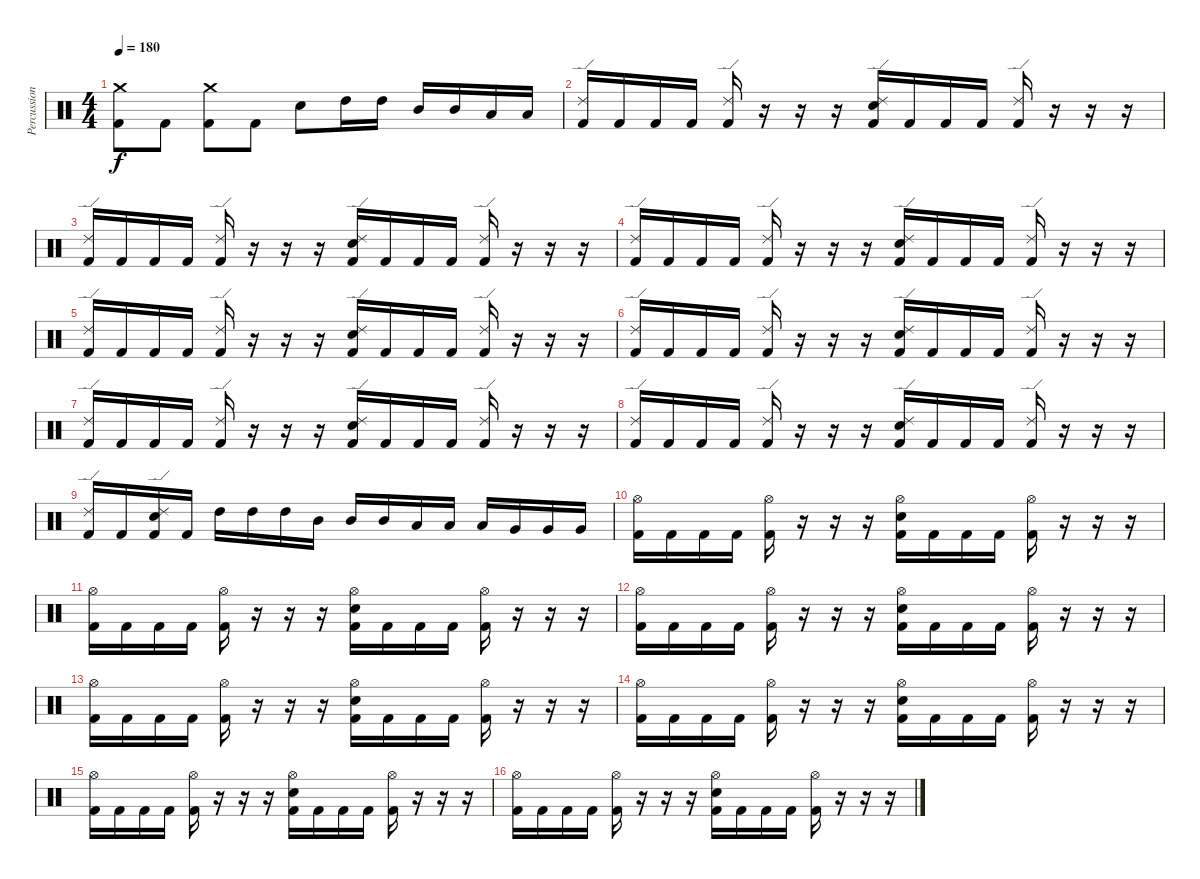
\track ("Percussion" "Percussion") {instrument percussion}
\staff {score}
\articulation defaults
\ts (4 4)
\tempo 180
\clef neutral
\ks c
("Kick (hit) 2" "Crash medium (hit)").8{dy f} "Kick (hit) 2".8 ("Kick (hit) 2" "Crash medium (hit)").8 "Kick (hit) 2".8 "Electric Snare (hit)".8 "High Tom (hit)".16 "High Tom (hit)".16 "Mid Tom (hit)".16 "Mid Tom (hit)".16 "Low Tom (hit)".16 "Low Tom (hit)".16 |
("Kick (hit) 2" "Ride (edge) 2").16 "Kick (hit) 2".16 "Kick (hit) 2".16 "Kick (hit) 2".16 ("Kick (hit) 2" "Ride (edge) 2").16 r.16 r.16 r.16 ("Kick (hit) 2" "Electric Snare (hit)" "Ride (edge) 2").16 "Kick (hit) 2".16 "Kick (hit) 2".16 "Kick (hit) 2".16 ("Kick (hit) 2" "Ride (edge) 2").16 r.16 r.16 r.16 |
("Kick (hit) 2" "Ride (edge) 2").16 "Kick (hit) 2".16 "Kick (hit) 2".16 "Kick (hit) 2".16 ("Kick (hit) 2" "Ride (edge) 2").16 r.16 r.16 r.16 ("Kick (hit) 2" "Electric Snare (hit)" "Ride (edge) 2").16 "Kick (hit) 2".16 "Kick (hit) 2".16 "Kick (hit) 2".16 ("Kick (hit) 2" "Ride (edge) 2").16 r.16 r.16 r.16 |
("Kick (hit) 2" "Ride (edge) 2").16 "Kick (hit) 2".16 "Kick (hit) 2".16 "Kick (hit) 2".16 ("Kick (hit) 2" "Ride (edge) 2").16 r.16 r.16 r.16 ("Kick (hit) 2" "Electric Snare (hit)" "Ride (edge) 2").16 "Kick (hit) 2".16 "Kick (hit) 2".16 "Kick (hit) 2".16 ("Kick (hit) 2" "Ride (edge) 2").16 r.16 r.16 r.16 |
("Kick (hit) 2" "Ride (edge) 2").16 "Kick (hit) 2".16 "Kick (hit) 2".16 "Kick (hit) 2".16 ("Kick (hit) 2" "Ride (edge) 2").16 r.16 r.16 r.16 ("Kick (hit) 2" "Electric Snare (hit)" "Ride (edge) 2").16 "Kick (hit) 2".16 "Kick (hit) 2".16 "Kick (hit) 2".16 ("Kick (hit) 2" "Ride (edge) 2").16 r.16 r.16 r.16 |
("Kick (hit) 2" "Ride (edge) 2").16 "Kick (hit) 2".16 "Kick (hit) 2".16 "Kick (hit) 2".16 ("Kick (hit) 2" "Ride (edge) 2").16 r.16 r.16 r.16 ("Kick (hit) 2" "Electric Snare (hit)" "Ride (edge) 2").16 "Kick (hit) 2".16 "Kick (hit) 2".16 "Kick (hit) 2".16 ("Kick (hit) 2" "Ride (edge) 2").16 r.16 r.16 r.16 |
("Kick (hit) 2" "Ride (edge) 2").16 "Kick (hit) 2".16 "Kick (hit) 2".16 "Kick (hit) 2".16 ("Kick (hit) 2" "Ride (edge) 2").16 r.16 r.16 r.16 ("Kick (hit) 2" "Electric Snare (hit)" "Ride (edge) 2").16 "Kick (hit) 2".16 "Kick (hit) 2".16 "Kick (hit) 2".16 ("Kick (hit) 2" "Ride (edge) 2").16 r.16 r.16 r.16 |
("Kick (hit) 2" "Ride (edge) 2").16 "Kick (hit) 2".16 "Kick (hit) 2".16 "Kick (hit) 2".16 ("Kick (hit) 2" "Ride (edge) 2").16 r.16 r.16 r.16 ("Kick (hit) 2" "Electric Snare (hit)" "Ride (edge) 2").16 "Kick (hit) 2".16 "Kick (hit) 2".16 "Kick (hit) 2".16 ("Kick (hit) 2" "Ride (edge) 2").16 r.16 r.16 r.16 |
("Kick (hit) 2" "Ride (edge) 2").16 "Kick (hit) 2".16 ("Kick (hit) 2" "Electric Snare (hit)" "Ride (edge) 2").16 "Kick (hit) 2".16 "High Tom (hit)".16 "High Tom (hit)".16 "High Tom (hit)".16 "Mid Tom (hit)".16 "Mid Tom (hit)".16 "Mid Tom (hit)".16 "Low Tom (hit)".16 "Low Tom (hit)".16 "Low Tom (hit)".16 "Very Low Tom (hit)".16 "Very Low Tom (hit)".16 "Very Low Tom (hit)".16 |
("Kick (hit) 2" "Hi-Hat (open)").16 "Kick (hit) 2".16 "Kick (hit) 2".16 "Kick (hit) 2".16 ("Kick (hit) 2" "Hi-Hat (open)").16 r.16 r.16 r.16 ("Kick (hit) 2" "Electric Snare (hit)" "Hi-Hat (open)").16 "Kick (hit) 2".16 "Kick (hit) 2".16 "Kick (hit) 2".16 ("Kick (hit) 2" "Hi-Hat (open)").16 r.16 r.16 r.16 |
("Kick (hit) 2" "Hi-Hat (open)").16 "Kick (hit) 2".16 "Kick (hit) 2".16 "Kick (hit) 2".16 ("Kick (hit) 2" "Hi-Hat (open)").16 r.16 r.16 r.16 ("Kick (hit) 2" "Electric Snare (hit)" "Hi-Hat (open)").16 "Kick (hit) 2".16 "Kick (hit) 2".16 "Kick (hit) 2".16 ("Kick (hit) 2" "Hi-Hat (open)").16 r.16 r.16 r.16 |
("Kick (hit) 2" "Hi-Hat (open)").16 "Kick (hit) 2".16 "Kick (hit) 2".16 "Kick (hit) 2".16 ("Kick (hit) 2" "Hi-Hat (open)").16 r.16 r.16 r.16 ("Kick (hit) 2" "Electric Snare (hit)" "Hi-Hat (open)").16 "Kick (hit) 2".16 "Kick (hit) 2".16 "Kick (hit) 2".16 ("Kick (hit) 2" "Hi-Hat (open)").16 r.16 r.16 r.16 |
("Kick (hit) 2" "Hi-Hat (open)").16 "Kick (hit) 2".16 "Kick (hit) 2".16 "Kick (hit) 2".16 ("Kick (hit) 2" "Hi-Hat (open)").16 r.16 r.16 r.16 ("Kick (hit) 2" "Electric Snare (hit)" "Hi-Hat (open)").16 "Kick (hit) 2".16 "Kick (hit) 2".16 "Kick (hit) 2".16 ("Kick (hit) 2" "Hi-Hat (open)").16 r.16 r.16 r.16 |
("Kick (hit) 2" "Hi-Hat (open)").16 "Kick (hit) 2".16 "Kick (hit) 2".16 "Kick (hit) 2".16 ("Kick (hit) 2" "Hi-Hat (open)").16 r.16 r.16 r.16 ("Kick (hit) 2" "Electric Snare (hit)" "Hi-Hat (open)").16 "Kick (hit) 2".16 "Kick (hit) 2".16 "Kick (hit) 2".16 ("Kick (hit) 2" "Hi-Hat (open)").16 r.16 r.16 r.16 |
("Kick (hit) 2" "Hi-Hat (open)").16 "Kick (hit) 2".16 "Kick (hit) 2".16 "Kick (hit) 2".16 ("Kick (hit) 2" "Hi-Hat (open)").16 r.16 r.16 r.16 ("Kick (hit) 2" "Electric Snare (hit)" "Hi-Hat (open)").16 "Kick (hit) 2".16 "Kick (hit) 2".16 "Kick (hit) 2".16 ("Kick (hit) 2" "Hi-Hat (open)").16 r.16 r.16 r.16 |
("Kick (hit) 2" "Hi-Hat (open)").16 "Kick (hit) 2".16 "Kick (hit) 2".16 "Kick (hit) 2".16 ("Kick (hit) 2" "Hi-Hat (open)").16 r.16 r.16 r.16 ("Kick (hit) 2" "Electric Snare (hit)" "Hi-Hat (open)").16 "Kick (hit) 2".16 "Kick (hit) 2".16 "Kick (hit) 2".16 ("Kick (hit) 2" "Hi-Hat (open)").16 r.16 r.16 r.16
